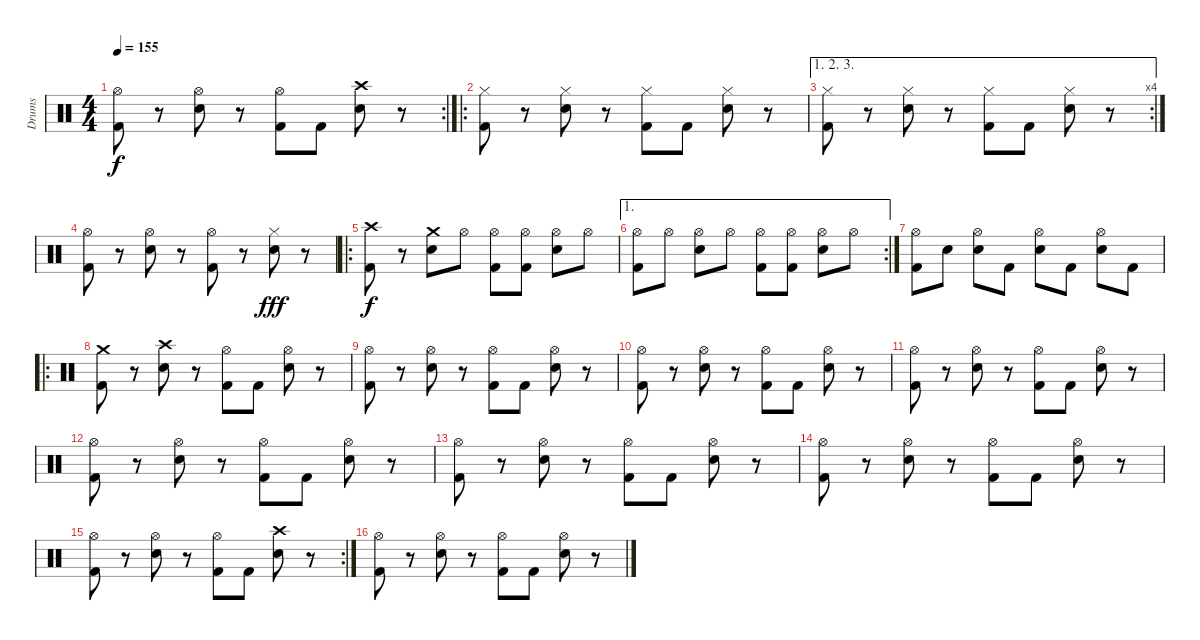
\track ("Drums" "Drums") {instrument percussion}
\staff {score}
\articulation defaults
\rc 2
\ts (4 4)
\tempo 155
\clef neutral
\ks c
("Hi-Hat (open)" "Kick (hit) 2").8{dy f} r.8 ("Hi-Hat (open)" "Snare (hit) 2").8 r.8 ("Hi-Hat (open)" "Kick (hit) 2").8 "Kick (hit) 2".8 ("Crash high (hit)" "Snare (hit) 2").8 r.8 |
\ro
("Hi-Hat (closed)" "Kick (hit) 2").8 r.8 ("Hi-Hat (closed)" "Snare (hit) 2").8 r.8 ("Hi-Hat (closed)" "Kick (hit) 2").8 "Kick (hit) 2".8 ("Hi-Hat (closed)" "Snare (hit) 2").8 r.8 |
\ae (1 2 3)
\rc 4
("Hi-Hat (closed)" "Kick (hit) 2").8 r.8 ("Hi-Hat (closed)" "Snare (hit) 2").8 r.8 ("Hi-Hat (closed)" "Kick (hit) 2").8 "Kick (hit) 2".8 ("Hi-Hat (closed)" "Snare (hit) 2").8 r.8 |
("Hi-Hat (open)" "Kick (hit) 2").8 r.8 ("Hi-Hat (open)" "Snare (hit) 2").8 r.8 ("Hi-Hat (open)" "Kick (hit) 2").8 r.8 ("Hi-Hat (closed)" "Snare (hit) 2").8{dy fff} r.8 |
\ro
("Crash high (hit)" "Kick (hit) 2").8{dy f} r.8 ("Crash medium (hit)" "Snare (hit) 2").8 "Hi-Hat (open)".8 ("Hi-Hat (open)" "Kick (hit) 2").8 ("Hi-Hat (open)" "Kick (hit) 2").8 ("Hi-Hat (open)" "Snare (hit) 2").8 "Hi-Hat (open)".8 |
\ae 1
\rc 2
("Hi-Hat (open)" "Kick (hit) 2").8 "Hi-Hat (open)".8 ("Hi-Hat (open)" "Snare (hit) 2").8 "Hi-Hat (open)".8 ("Hi-Hat (open)" "Kick (hit) 2").8 ("Hi-Hat (open)" "Kick (hit) 2").8 ("Hi-Hat (open)" "Snare (hit) 2").8 "Hi-Hat (open)".8 |
("Hi-Hat (open)" "Kick (hit) 2").8 "Snare (hit) 2".8 ("Hi-Hat (open)" "Snare (hit) 2").8 "Kick (hit) 2".8 ("Hi-Hat (open)" "Snare (hit) 2").8 "Kick (hit) 2".8 ("Hi-Hat (open)" "Snare (hit) 2").8 "Kick (hit) 2".8 |
\ro
("Crash medium (hit)" "Kick (hit) 2").8 r.8 ("Crash high (hit)" "Snare (hit) 2").8 r.8 ("Hi-Hat (open)" "Kick (hit) 2").8 "Kick (hit) 2".8 ("Hi-Hat (open)" "Snare (hit) 2").8 r.8 |
("Hi-Hat (open)" "Kick (hit) 2").8 r.8 ("Hi-Hat (open)" "Snare (hit) 2").8 r.8 ("Hi-Hat (open)" "Kick (hit) 2").8 "Kick (hit) 2".8 ("Hi-Hat (open)" "Snare (hit) 2").8 r.8 |
("Hi-Hat (open)" "Kick (hit) 2").8 r.8 ("Hi-Hat (open)" "Snare (hit) 2").8 r.8 ("Hi-Hat (open)" "Kick (hit) 2").8 "Kick (hit) 2".8 ("Hi-Hat (open)" "Snare (hit) 2").8 r.8 |
("Hi-Hat (open)" "Kick (hit) 2").8 r.8 ("Hi-Hat (open)" "Snare (hit) 2").8 r.8 ("Hi-Hat (open)" "Kick (hit) 2").8 "Kick (hit) 2".8 ("Hi-Hat (open)" "Snare (hit) 2").8 r.8 |
("Hi-Hat (open)" "Kick (hit) 2").8 r.8 ("Hi-Hat (open)" "Snare (hit) 2").8 r.8 ("Hi-Hat (open)" "Kick (hit) 2").8 "Kick (hit) 2".8 ("Hi-Hat (open)" "Snare (hit) 2").8 r.8 |
("Hi-Hat (open)" "Kick (hit) 2").8 r.8 ("Hi-Hat (open)" "Snare (hit) 2").8 r.8 ("Hi-Hat (open)" "Kick (hit) 2").8 "Kick (hit) 2".8 ("Hi-Hat (open)" "Snare (hit) 2").8 r.8 |
("Hi-Hat (open)" "Kick (hit) 2").8 r.8 ("Hi-Hat (open)" "Snare (hit) 2").8 r.8 ("Hi-Hat (open)" "Kick (hit) 2").8 "Kick (hit) 2".8 ("Hi-Hat (open)" "Snare (hit) 2").8 r.8 |
\rc 2
("Hi-Hat (open)" "Kick (hit) 2").8 r.8 ("Hi-Hat (open)" "Snare (hit) 2").8 r.8 ("Hi-Hat (open)" "Kick (hit) 2").8 "Kick (hit) 2".8 ("Crash high (hit)" "Snare (hit) 2").8 r.8 |
("Hi-Hat (open)" "Kick (hit) 2").8 r.8 ("Hi-Hat (open)" "Snare (hit) 2").8 r.8 ("Hi-Hat (open)" "Kick (hit) 2").8 "Kick (hit) 2".8 ("Hi-Hat (open)" "Snare (hit) 2").8 r.8
